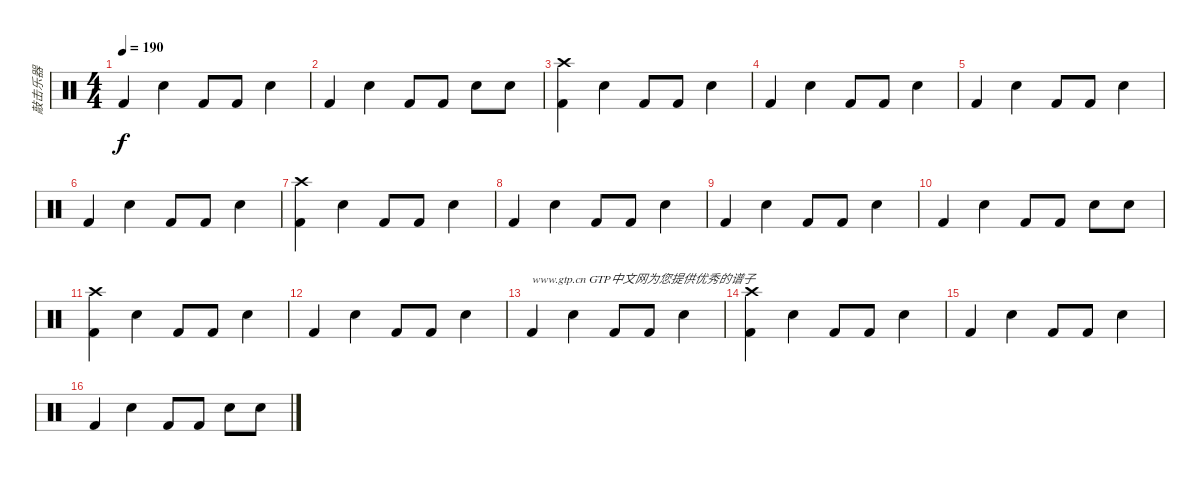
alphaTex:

\track ("敲击乐器" "敲击乐器") {instrument percussion}
\staff {score}
\articulation defaults
\ts (4 4)
\tempo 190
\clef neutral
\ks c "Kick (hit) 2".4{dy f} "Snare (hit) 2".4 "Kick (hit) 2".8 "Kick (hit) 2".8 "Snare (hit) 2".4
|
"Kick (hit) 2".4 "Snare (hit) 2".4 "Kick (hit) 2".8 "Kick (hit) 2".8 "Snare (hit) 2".8 "Snare (hit) 2".8 |
("Kick (hit) 2" "Crash high (hit)").4 "Snare (hit) 2".4 "Kick (hit) 2".8 "Kick (hit) 2".8 "Snare (hit) 2".4 |
"Kick (hit) 2".4 "Snare (hit) 2".4 "Kick (hit) 2".8 "Kick (hit) 2".8 "Snare (hit) 2".4 |
"Kick (hit) 2".4 "Snare (hit) 2".4 "Kick (hit) 2".8 "Kick (hit) 2".8 "Snare (hit) 2".4 |
"Kick (hit) 2".4 "Snare (hit) 2".4 "Kick (hit) 2".8 "Kick (hit) 2".8 "Snare (hit) 2".4 |
("Kick (hit) 2" "Crash high (hit)").4 "Snare (hit) 2".4 "Kick (hit) 2".8 "Kick (hit) 2".8 "Snare (hit) 2".4 |
"Kick (hit) 2".4 "Snare (hit) 2".4 "Kick (hit) 2".8 "Kick (hit) 2".8 "Snare (hit) 2".4 |
"Kick (hit) 2".4 "Snare (hit) 2".4 "Kick (hit) 2".8 "Kick (hit) 2".8 "Snare (hit) 2".4 |
"Kick (hit) 2".4 "Snare (hit) 2".4 "Kick (hit) 2".8 "Kick (hit) 2".8 "Snare (hit) 2".8 "Snare (hit) 2".8 |
("Kick (hit) 2" "Crash high (hit)").4 "Snare (hit) 2".4 "Kick (hit) 2".8 "Kick (hit) 2".8 "Snare (hit) 2".4 |
"Kick (hit) 2".4 "Snare (hit) 2".4 "Kick (hit) 2".8 "Kick (hit) 2".8 "Snare (hit) 2".4 |
"Kick (hit) 2".4{txt "www.gtp.cn GTP中文网为您提供优秀的谱子"} "Snare (hit) 2".4 "Kick (hit) 2".8 "Kick (hit) 2".8 "Snare (hit) 2".4 |
("Kick (hit) 2" "Crash high (hit)").4 "Snare (hit) 2".4 "Kick (hit) 2".8 "Kick (hit) 2".8 "Snare (hit) 2".4 |
"Kick (hit) 2".4 "Snare (hit) 2".4 "Kick (hit) 2".8 "Kick (hit) 2".8 "Snare (hit) 2".4 |
"Kick (hit) 2".4 "Snare (hit) 2".4 "Kick (hit) 2".8 "Kick (hit) 2".8 "Snare (hit) 2".8 "Snare (hit) 2".8
